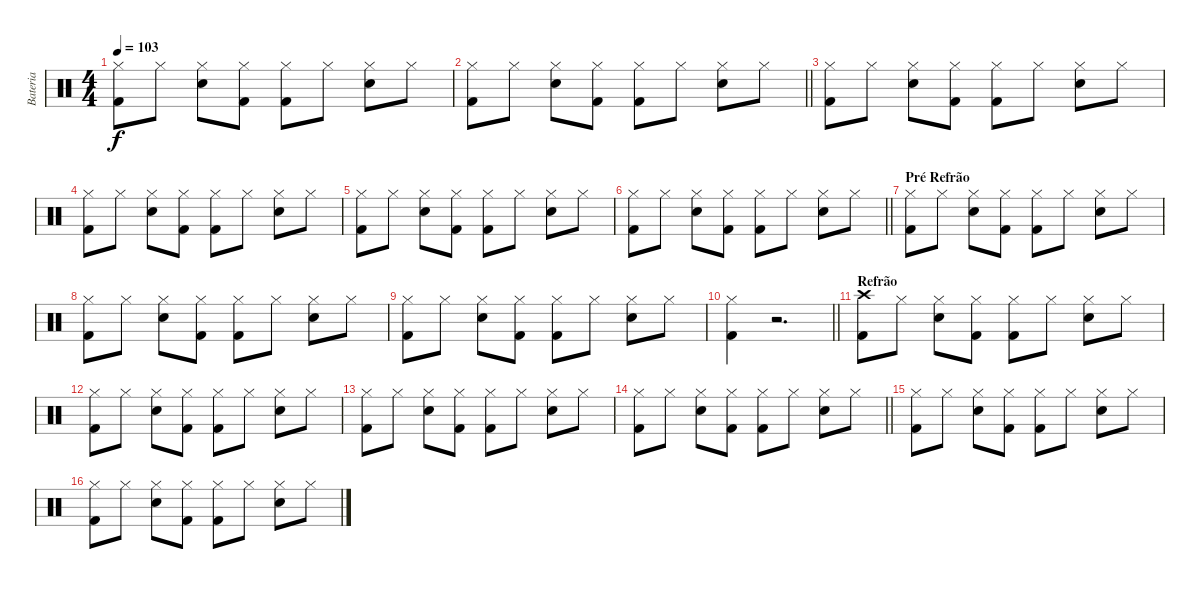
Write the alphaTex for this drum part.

\track ("Bateria" "Bateria") {instrument percussion}
\staff {score}
\articulation defaults
\ts (4 4)
\tempo 103
\clef neutral
\ks c
("Hi-Hat (closed)" "Kick (hit) 2").8{dy f} "Hi-Hat (closed)".8 ("Hi-Hat (closed)" "Snare (hit) 2").8 ("Hi-Hat (closed)" "Kick (hit) 2").8 ("Hi-Hat (closed)" "Kick (hit) 2").8 "Hi-Hat (closed)".8 ("Hi-Hat (closed)" "Snare (hit) 2").8 "Hi-Hat (closed)".8 |
\barLineRight lightlight
("Hi-Hat (closed)" "Kick (hit) 2").8 "Hi-Hat (closed)".8 ("Hi-Hat (closed)" "Snare (hit) 2").8 ("Hi-Hat (closed)" "Kick (hit) 2").8 ("Hi-Hat (closed)" "Kick (hit) 2").8 "Hi-Hat (closed)".8 ("Hi-Hat (closed)" "Snare (hit) 2").8 "Hi-Hat (closed)".8 |
("Hi-Hat (closed)" "Kick (hit) 2").8 "Hi-Hat (closed)".8 ("Hi-Hat (closed)" "Snare (hit) 2").8 ("Hi-Hat (closed)" "Kick (hit) 2").8 ("Hi-Hat (closed)" "Kick (hit) 2").8 "Hi-Hat (closed)".8 ("Hi-Hat (closed)" "Snare (hit) 2").8 "Hi-Hat (closed)".8 |
("Hi-Hat (closed)" "Kick (hit) 2").8 "Hi-Hat (closed)".8 ("Hi-Hat (closed)" "Snare (hit) 2").8 ("Hi-Hat (closed)" "Kick (hit) 2").8 ("Hi-Hat (closed)" "Kick (hit) 2").8 "Hi-Hat (closed)".8 ("Hi-Hat (closed)" "Snare (hit) 2").8 "Hi-Hat (closed)".8 |
("Hi-Hat (closed)" "Kick (hit) 2").8 "Hi-Hat (closed)".8 ("Hi-Hat (closed)" "Snare (hit) 2").8 ("Hi-Hat (closed)" "Kick (hit) 2").8 ("Hi-Hat (closed)" "Kick (hit) 2").8 "Hi-Hat (closed)".8 ("Hi-Hat (closed)" "Snare (hit) 2").8 "Hi-Hat (closed)".8 |
\barLineRight lightlight
("Hi-Hat (closed)" "Kick (hit) 2").8 "Hi-Hat (closed)".8 ("Hi-Hat (closed)" "Snare (hit) 2").8 ("Hi-Hat (closed)" "Kick (hit) 2").8 ("Hi-Hat (closed)" "Kick (hit) 2").8 "Hi-Hat (closed)".8 ("Hi-Hat (closed)" "Snare (hit) 2").8 "Hi-Hat (closed)".8 |
\section ("" "Pré Refrão")
("Hi-Hat (closed)" "Kick (hit) 2").8 "Hi-Hat (closed)".8 ("Hi-Hat (closed)" "Snare (hit) 2").8 ("Hi-Hat (closed)" "Kick (hit) 2").8 ("Hi-Hat (closed)" "Kick (hit) 2").8 "Hi-Hat (closed)".8 ("Hi-Hat (closed)" "Snare (hit) 2").8 "Hi-Hat (closed)".8 |
("Hi-Hat (closed)" "Kick (hit) 2").8 "Hi-Hat (closed)".8 ("Hi-Hat (closed)" "Snare (hit) 2").8 ("Hi-Hat (closed)" "Kick (hit) 2").8 ("Hi-Hat (closed)" "Kick (hit) 2").8 "Hi-Hat (closed)".8 ("Hi-Hat (closed)" "Snare (hit) 2").8 "Hi-Hat (closed)".8 |
("Hi-Hat (closed)" "Kick (hit) 2").8 "Hi-Hat (closed)".8 ("Hi-Hat (closed)" "Snare (hit) 2").8 ("Hi-Hat (closed)" "Kick (hit) 2").8 ("Hi-Hat (closed)" "Kick (hit) 2").8 "Hi-Hat (closed)".8 ("Hi-Hat (closed)" "Snare (hit) 2").8 "Hi-Hat (closed)".8 |
\barLineRight lightlight
("Hi-Hat (closed)" "Kick (hit) 2").4 r.2{d} |
\section ("" "Refrão")
("Crash high (hit)" "Kick (hit) 2").8 "Hi-Hat (closed)".8 ("Hi-Hat (closed)" "Snare (hit) 2").8 ("Hi-Hat (closed)" "Kick (hit) 2").8 ("Hi-Hat (closed)" "Kick (hit) 2").8 "Hi-Hat (closed)".8 ("Hi-Hat (closed)" "Snare (hit) 2").8 "Hi-Hat (closed)".8 |
("Hi-Hat (closed)" "Kick (hit) 2").8 "Hi-Hat (closed)".8 ("Hi-Hat (closed)" "Snare (hit) 2").8 ("Hi-Hat (closed)" "Kick (hit) 2").8 ("Hi-Hat (closed)" "Kick (hit) 2").8 "Hi-Hat (closed)".8 ("Hi-Hat (closed)" "Snare (hit) 2").8 "Hi-Hat (closed)".8 |
("Hi-Hat (closed)" "Kick (hit) 2").8 "Hi-Hat (closed)".8 ("Hi-Hat (closed)" "Snare (hit) 2").8 ("Hi-Hat (closed)" "Kick (hit) 2").8 ("Hi-Hat (closed)" "Kick (hit) 2").8 "Hi-Hat (closed)".8 ("Hi-Hat (closed)" "Snare (hit) 2").8 "Hi-Hat (closed)".8 |
\barLineRight lightlight
("Hi-Hat (closed)" "Kick (hit) 2").8 "Hi-Hat (closed)".8 ("Hi-Hat (closed)" "Snare (hit) 2").8 ("Hi-Hat (closed)" "Kick (hit) 2").8 ("Hi-Hat (closed)" "Kick (hit) 2").8 "Hi-Hat (closed)".8 ("Hi-Hat (closed)" "Snare (hit) 2").8 "Hi-Hat (closed)".8 |
("Hi-Hat (closed)" "Kick (hit) 2").8 "Hi-Hat (closed)".8 ("Hi-Hat (closed)" "Snare (hit) 2").8 ("Hi-Hat (closed)" "Kick (hit) 2").8 ("Hi-Hat (closed)" "Kick (hit) 2").8 "Hi-Hat (closed)".8 ("Hi-Hat (closed)" "Snare (hit) 2").8 "Hi-Hat (closed)".8 |
("Hi-Hat (closed)" "Kick (hit) 2").8 "Hi-Hat (closed)".8 ("Hi-Hat (closed)" "Snare (hit) 2").8 ("Hi-Hat (closed)" "Kick (hit) 2").8 ("Hi-Hat (closed)" "Kick (hit) 2").8 "Hi-Hat (closed)".8 ("Hi-Hat (closed)" "Snare (hit) 2").8 "Hi-Hat (closed)".8
